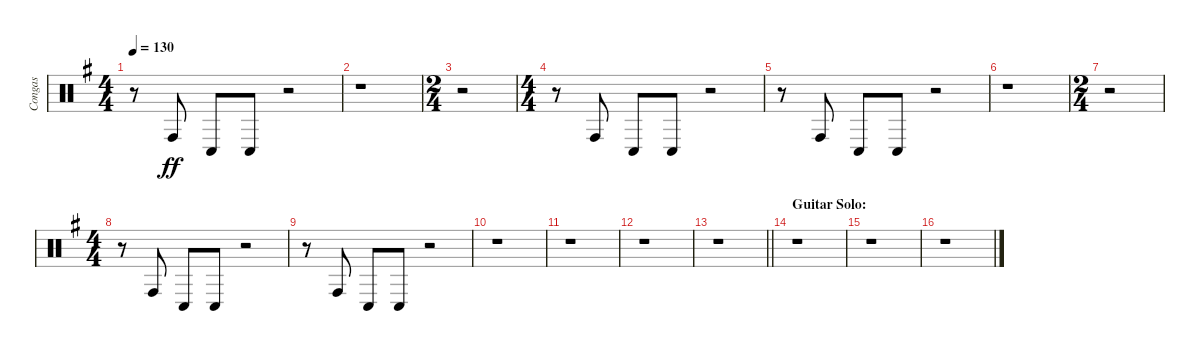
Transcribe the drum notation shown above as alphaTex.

\track ("Congas" "Congas") {instrument percussion}
\staff {score}
\articulation defaults
\ts (4 4)
\tempo 130
\clef neutral
\ks g
r.8{dy ff} "Conga high (hit)".8 "Conga low (hit)".8 "Conga low (hit)".8 r.2 |
r.1 |
\ts (2 4)
r.2 |
\ts (4 4)
r.8 "Conga high (hit)".8 "Conga low (hit)".8 "Conga low (hit)".8 r.2 |
r.8 "Conga high (hit)".8 "Conga low (hit)".8 "Conga low (hit)".8 r.2 |
r.1 |
\ts (2 4)
r.2 |
\ts (4 4)
r.8 "Conga high (hit)".8 "Conga low (hit)".8 "Conga low (hit)".8 r.2 |
r.8 "Conga high (hit)".8 "Conga low (hit)".8 "Conga low (hit)".8 r.2 |
r.1 |
r.1 |
r.1 |
\barLineRight lightlight
r.1 |
\section ("" "Guitar Solo:")
r.1 |
r.1 |
r.1
